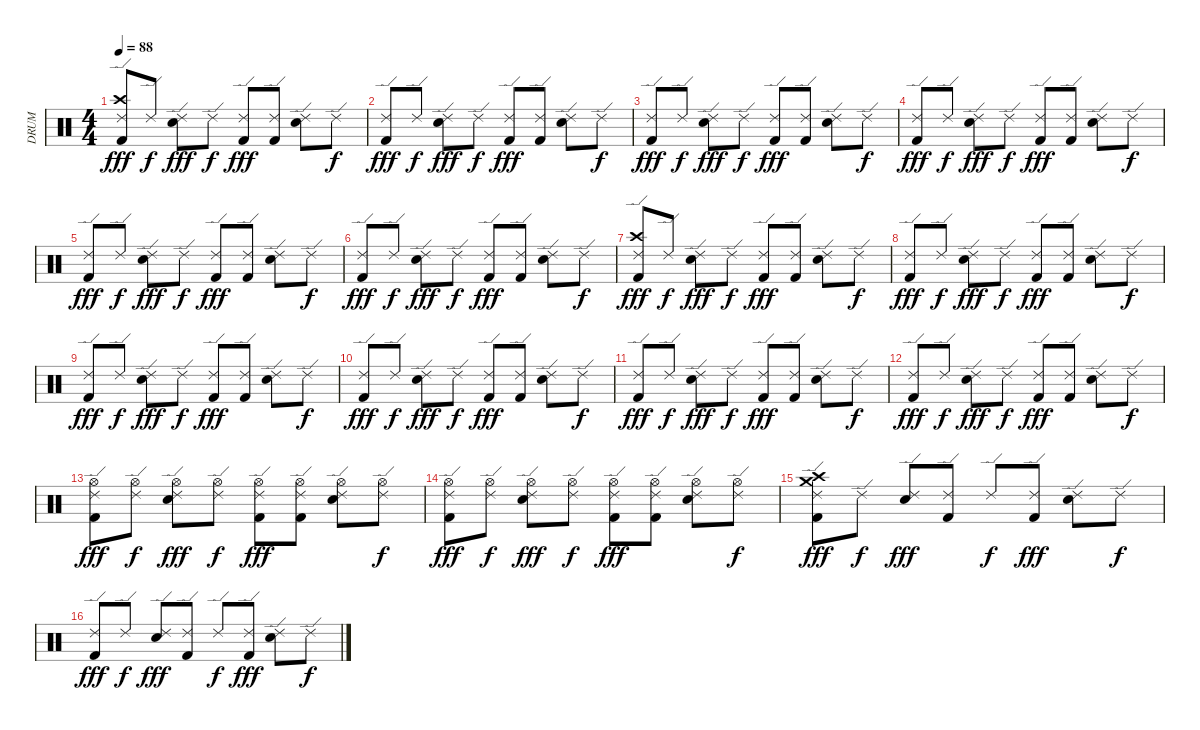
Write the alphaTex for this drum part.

\track ("DRUM" "DRUM") {instrument percussion}
\staff {score}
\articulation defaults
\ts (4 4)
\tempo 88
\clef neutral
\ks c
("Ride (edge) 2" "Crash high (hit)" "Kick (hit) 2").8{dy fff} "Ride (edge) 2".8{dy f} ("Ride (edge) 2" "Snare (hit) 2").8{dy fff} "Ride (edge) 2".8{dy f} ("Ride (edge) 2" "Kick (hit) 2").8{dy fff} ("Ride (edge) 2" "Kick (hit) 2").8 ("Ride (edge) 2" "Snare (hit) 2").8 "Ride (edge) 2".8{dy f} |
("Ride (edge) 2" "Kick (hit) 2").8{dy fff} "Ride (edge) 2".8{dy f} ("Ride (edge) 2" "Snare (hit) 2").8{dy fff} "Ride (edge) 2".8{dy f} ("Ride (edge) 2" "Kick (hit) 2").8{dy fff} ("Ride (edge) 2" "Kick (hit) 2").8 ("Ride (edge) 2" "Snare (hit) 2").8 "Ride (edge) 2".8{dy f} |
("Ride (edge) 2" "Kick (hit) 2").8{dy fff} "Ride (edge) 2".8{dy f} ("Ride (edge) 2" "Snare (hit) 2").8{dy fff} "Ride (edge) 2".8{dy f} ("Ride (edge) 2" "Kick (hit) 2").8{dy fff} ("Ride (edge) 2" "Kick (hit) 2").8 ("Ride (edge) 2" "Snare (hit) 2").8 "Ride (edge) 2".8{dy f} |
("Ride (edge) 2" "Kick (hit) 2").8{dy fff} "Ride (edge) 2".8{dy f} ("Ride (edge) 2" "Snare (hit) 2").8{dy fff} "Ride (edge) 2".8{dy f} ("Ride (edge) 2" "Kick (hit) 2").8{dy fff} ("Ride (edge) 2" "Kick (hit) 2").8 ("Ride (edge) 2" "Snare (hit) 2").8 "Ride (edge) 2".8{dy f} |
("Ride (edge) 2" "Kick (hit) 2").8{dy fff} "Ride (edge) 2".8{dy f} ("Ride (edge) 2" "Snare (hit) 2").8{dy fff} "Ride (edge) 2".8{dy f} ("Ride (edge) 2" "Kick (hit) 2").8{dy fff} ("Ride (edge) 2" "Kick (hit) 2").8 ("Ride (edge) 2" "Snare (hit) 2").8 "Ride (edge) 2".8{dy f} |
("Ride (edge) 2" "Kick (hit) 2").8{dy fff} "Ride (edge) 2".8{dy f} ("Ride (edge) 2" "Snare (hit) 2").8{dy fff} "Ride (edge) 2".8{dy f} ("Ride (edge) 2" "Kick (hit) 2").8{dy fff} ("Ride (edge) 2" "Kick (hit) 2").8 ("Ride (edge) 2" "Snare (hit) 2").8 "Ride (edge) 2".8{dy f} |
("Ride (edge) 2" "Crash high (hit)" "Kick (hit) 2").8{dy fff} "Ride (edge) 2".8{dy f} ("Ride (edge) 2" "Snare (hit) 2").8{dy fff} "Ride (edge) 2".8{dy f} ("Ride (edge) 2" "Kick (hit) 2").8{dy fff} ("Ride (edge) 2" "Kick (hit) 2").8 ("Ride (edge) 2" "Snare (hit) 2").8 "Ride (edge) 2".8{dy f} |
("Ride (edge) 2" "Kick (hit) 2").8{dy fff} "Ride (edge) 2".8{dy f} ("Ride (edge) 2" "Snare (hit) 2").8{dy fff} "Ride (edge) 2".8{dy f} ("Ride (edge) 2" "Kick (hit) 2").8{dy fff} ("Ride (edge) 2" "Kick (hit) 2").8 ("Ride (edge) 2" "Snare (hit) 2").8 "Ride (edge) 2".8{dy f} |
("Ride (edge) 2" "Kick (hit) 2").8{dy fff} "Ride (edge) 2".8{dy f} ("Ride (edge) 2" "Snare (hit) 2").8{dy fff} "Ride (edge) 2".8{dy f} ("Ride (edge) 2" "Kick (hit) 2").8{dy fff} ("Ride (edge) 2" "Kick (hit) 2").8 ("Ride (edge) 2" "Snare (hit) 2").8 "Ride (edge) 2".8{dy f} |
("Ride (edge) 2" "Kick (hit) 2").8{dy fff} "Ride (edge) 2".8{dy f} ("Ride (edge) 2" "Snare (hit) 2").8{dy fff} "Ride (edge) 2".8{dy f} ("Ride (edge) 2" "Kick (hit) 2").8{dy fff} ("Ride (edge) 2" "Kick (hit) 2").8 ("Ride (edge) 2" "Snare (hit) 2").8 "Ride (edge) 2".8{dy f} |
("Ride (edge) 2" "Kick (hit) 2").8{dy fff} "Ride (edge) 2".8{dy f} ("Ride (edge) 2" "Snare (hit) 2").8{dy fff} "Ride (edge) 2".8{dy f} ("Ride (edge) 2" "Kick (hit) 2").8{dy fff} ("Ride (edge) 2" "Kick (hit) 2").8 ("Ride (edge) 2" "Snare (hit) 2").8 "Ride (edge) 2".8{dy f} |
("Ride (edge) 2" "Kick (hit) 2").8{dy fff} "Ride (edge) 2".8{dy f} ("Ride (edge) 2" "Snare (hit) 2").8{dy fff} "Ride (edge) 2".8{dy f} ("Ride (edge) 2" "Kick (hit) 2").8{dy fff} ("Ride (edge) 2" "Kick (hit) 2").8 ("Ride (edge) 2" "Snare (hit) 2").8 "Ride (edge) 2".8{dy f} |
("Ride (edge) 2" "Hi-Hat (open)" "Kick (hit) 2").8{dy fff} ("Ride (edge) 2" "Hi-Hat (open)").8{dy f} ("Ride (edge) 2" "Hi-Hat (open)" "Snare (hit) 2").8{dy fff} ("Ride (edge) 2" "Hi-Hat (open)").8{dy f} ("Ride (edge) 2" "Hi-Hat (open)" "Kick (hit) 2").8{dy fff} ("Ride (edge) 2" "Hi-Hat (open)" "Kick (hit) 2").8 ("Ride (edge) 2" "Hi-Hat (open)" "Snare (hit) 2").8 ("Ride (edge) 2" "Hi-Hat (open)").8{dy f} |
("Ride (edge) 2" "Hi-Hat (open)" "Kick (hit) 2").8{dy fff} ("Ride (edge) 2" "Hi-Hat (open)").8{dy f} ("Ride (edge) 2" "Hi-Hat (open)" "Snare (hit) 2").8{dy fff} ("Ride (edge) 2" "Hi-Hat (open)").8{dy f} ("Ride (edge) 2" "Hi-Hat (open)" "Kick (hit) 2").8{dy fff} ("Ride (edge) 2" "Hi-Hat (open)" "Kick (hit) 2").8 ("Ride (edge) 2" "Hi-Hat (open)" "Snare (hit) 2").8 ("Ride (edge) 2" "Hi-Hat (open)").8{dy f} |
("Crash high (hit)" "Ride (edge) 2" "Crash medium (hit)" "Kick (hit) 2").8{dy fff} "Ride (edge) 2".8{dy f} ("Ride (edge) 2" "Snare (hit) 2").8{dy fff} ("Ride (edge) 2" "Kick (hit) 2").8 "Ride (edge) 2".8{dy f} ("Ride (edge) 2" "Kick (hit) 2").8{dy fff} ("Ride (edge) 2" "Snare (hit) 2").8 "Ride (edge) 2".8{dy f} |
("Ride (edge) 2" "Kick (hit) 2").8{dy fff} "Ride (edge) 2".8{dy f} ("Ride (edge) 2" "Snare (hit) 2").8{dy fff} ("Ride (edge) 2" "Kick (hit) 2").8 "Ride (edge) 2".8{dy f} ("Ride (edge) 2" "Kick (hit) 2").8{dy fff} ("Ride (edge) 2" "Snare (hit) 2").8 "Ride (edge) 2".8{dy f}
